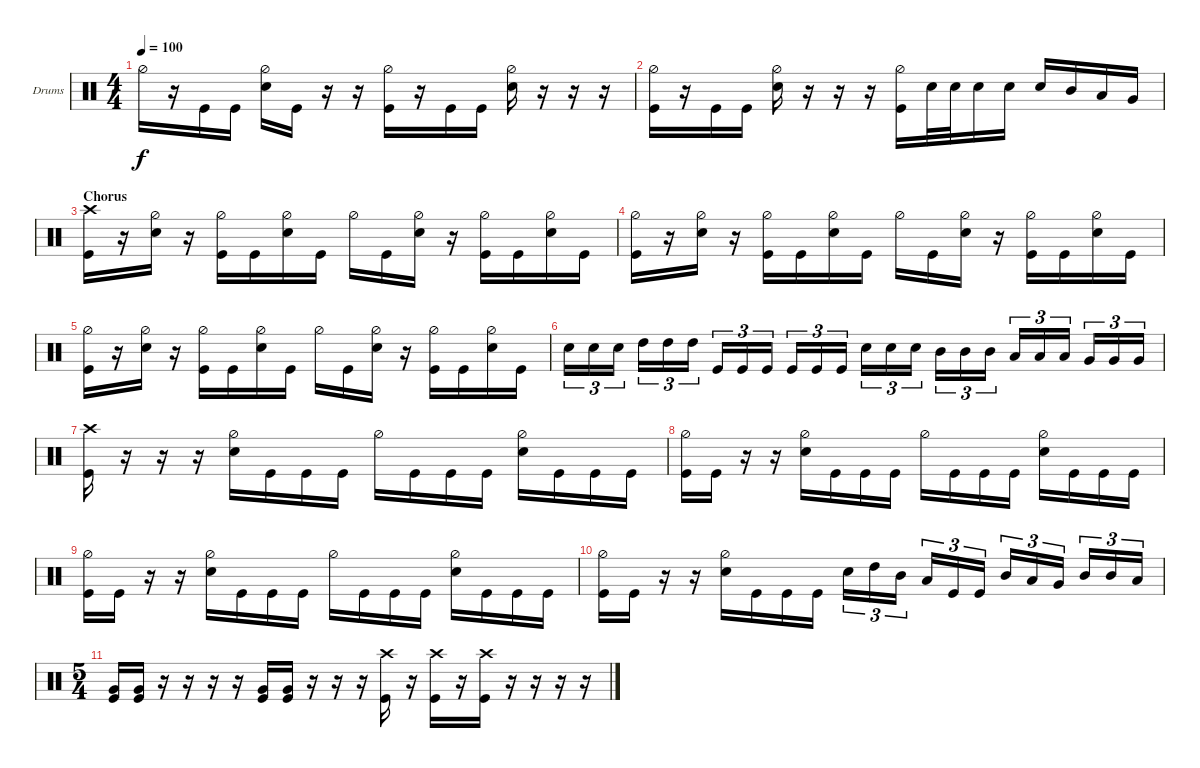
\bracketExtendMode groupsimilarinstruments
\firstSystemTrackNameOrientation horizontal
\otherSystemsTrackNameOrientation horizontal
\track ("Drumkit" "Drums") {instrument percussion}
\staff {score}
\articulation defaults
\ts (4 4)
\tempo 100
\clef neutral
\scale
0.333333
\ks c "Hi-Hat (half)".16{dy f}
r.16 "Kick (hit)".16 "Kick (hit)".16 ("Hi-Hat (half)" "Snare (hit) 2").16 "Kick (hit)".16 r.16 r.16 ("Hi-Hat (half)" "Kick (hit)").16 r.16 "Kick (hit)".16 "Kick (hit)".16 ("Hi-Hat (half)" "Snare (hit) 2").16 r.16 r.16 r.16 |
\scale
0.333333 ("Hi-Hat (half)" "Kick (hit)").16 r.16 "Kick (hit)".16 "Kick (hit)".16 ("Hi-Hat (half)" "Snare (hit) 2").16 r.16 r.16 r.16 ("Hi-Hat (half)" "Kick (hit)").16 "Snare (hit) 2".32 "Snare (hit) 2".32 "Snare (hit) 2".16 "Snare (hit) 2".16 "Snare (hit) 2".16 "Mid Tom (hit)".16 "Low Tom (hit)".16 "Very Low Tom (hit)".16 |
\section ("" "Chorus")
\scale
0.333333 ("Kick (hit)" "Crash high (hit)").16 r.16 ("Hi-Hat (half)" "Snare (hit) 2").16 r.16 ("Hi-Hat (half)" "Kick (hit)").16 "Kick (hit)".16 ("Hi-Hat (half)" "Snare (hit) 2").16 "Kick (hit)".16 "Hi-Hat (half)".16 "Kick (hit)".16 ("Hi-Hat (half)" "Snare (hit) 2").16 r.16 ("Hi-Hat (half)" "Kick (hit)").16 "Kick (hit)".16 ("Hi-Hat (half)" "Snare (hit) 2").16 "Kick (hit)".16 |
\scale
0.333333 ("Kick (hit)" "Hi-Hat (half)").16 r.16 ("Hi-Hat (half)" "Snare (hit) 2").16 r.16 ("Hi-Hat (half)" "Kick (hit)").16 "Kick (hit)".16 ("Hi-Hat (half)" "Snare (hit) 2").16 "Kick (hit)".16 "Hi-Hat (half)".16 "Kick (hit)".16 ("Hi-Hat (half)" "Snare (hit) 2").16 r.16 ("Hi-Hat (half)" "Kick (hit)").16 "Kick (hit)".16 ("Hi-Hat (half)" "Snare (hit) 2").16 "Kick (hit)".16 |
\scale
0.333333 ("Kick (hit)" "Hi-Hat (half)").16 r.16 ("Hi-Hat (half)" "Snare (hit) 2").16 r.16 ("Hi-Hat (half)" "Kick (hit)").16 "Kick (hit)".16 ("Hi-Hat (half)" "Snare (hit) 2").16 "Kick (hit)".16 "Hi-Hat (half)".16 "Kick (hit)".16 ("Hi-Hat (half)" "Snare (hit) 2").16 r.16 ("Hi-Hat (half)" "Kick (hit)").16 "Kick (hit)".16 ("Hi-Hat (half)" "Snare (hit) 2").16 "Kick (hit)".16 |
\scale
0.333333 "Snare (hit) 2".16{tu (3 2)} "Snare (hit) 2".16{tu (3 2)} "Snare (hit) 2".16{tu (3 2)} "High Tom (hit)".16{tu (3 2)} "High Tom (hit)".16{tu (3 2)} "High Tom (hit)".16{tu (3 2)} "Kick (hit)".16{tu (3 2)} "Kick (hit)".16{tu (3 2)} "Kick (hit)".16{tu (3 2)} "Kick (hit)".16{tu (3 2)} "Kick (hit)".16{tu (3 2)} "Kick (hit)".16{tu (3 2)} "Snare (hit) 2".16{tu (3 2)} "Snare (hit) 2".16{tu (3 2)} "Snare (hit) 2".16{tu (3 2)} "Mid Tom (hit)".16{tu (3 2)} "Mid Tom (hit)".16{tu (3 2)} "Mid Tom (hit)".16{tu (3 2)} "Low Tom (hit)".16{tu (3 2)} "Low Tom (hit)".16{tu (3 2)} "Low Tom (hit)".16{tu (3 2)} "Very Low Tom (hit)".16{tu (3 2)} "Very Low Tom (hit)".16{tu (3 2)} "Very Low Tom (hit)".16{tu (3 2)} |
\scale
0.333333 ("Kick (hit)" "Crash high (hit)").16 r.16 r.16 r.16 ("Snare (hit) 2" "Hi-Hat (half)").16 "Kick (hit)".16 "Kick (hit)".16 "Kick (hit)".16 "Hi-Hat (half)".16 "Kick (hit)".16 "Kick (hit)".16 "Kick (hit)".16 ("Hi-Hat (half)" "Snare (hit) 2").16 "Kick (hit)".16 "Kick (hit)".16 "Kick (hit)".16 |
\scale
0.333333 ("Kick (hit)" "Hi-Hat (half)").16 "Kick (hit)".16 r.16 r.16 ("Snare (hit) 2" "Hi-Hat (half)").16 "Kick (hit)".16 "Kick (hit)".16 "Kick (hit)".16 "Hi-Hat (half)".16 "Kick (hit)".16 "Kick (hit)".16 "Kick (hit)".16 ("Hi-Hat (half)" "Snare (hit) 2").16 "Kick (hit)".16 "Kick (hit)".16 "Kick (hit)".16 |
\scale
0.333333 ("Kick (hit)" "Hi-Hat (half)").16 "Kick (hit)".16 r.16 r.16 ("Snare (hit) 2" "Hi-Hat (half)").16 "Kick (hit)".16 "Kick (hit)".16 "Kick (hit)".16 "Hi-Hat (half)".16 "Kick (hit)".16 "Kick (hit)".16 "Kick (hit)".16 ("Hi-Hat (half)" "Snare (hit) 2").16 "Kick (hit)".16 "Kick (hit)".16 "Kick (hit)".16 |
("Kick (hit)" "Hi-Hat (half)").16 "Kick (hit)".16 r.16 r.16 ("Snare (hit) 2" "Hi-Hat (half)").16 "Kick (hit)".16 "Kick (hit)".16 "Kick (hit)".16 "Snare (hit) 2".16{tu (3 2)} "High Tom (hit)".16{tu (3 2)} "Mid Tom (hit)".16{tu (3 2)} "Low Tom (hit)".16{tu (3 2)} "Kick (hit)".16{tu (3 2)} "Kick (hit)".16{tu (3 2)} "Mid Tom (hit)".16{tu (3 2)} "Low Tom (hit)".16{tu (3 2)} "Very Low Tom (hit)".16{tu (3 2)} "Mid Tom (hit)".16{tu (3 2)} "Mid Tom (hit)".16{tu (3 2)} "Low Tom (hit)".16{tu (3 2)} |
\ts (5 4)
("Kick (hit)" "Very Low Tom (hit)").16 ("Kick (hit)" "Very Low Tom (hit)").16 r.16 r.16 r.16 r.16 ("Kick (hit)" "Very Low Tom (hit)").16 ("Kick (hit)" "Very Low Tom (hit)").16 r.16 r.16 r.16 ("Kick (hit)" "Crash high (hit)").16 r.16 ("Kick (hit)" "Crash high (hit)").16 r.16 ("Kick (hit)" "Crash high (hit)").16 r.16 r.16 r.16 r.16
